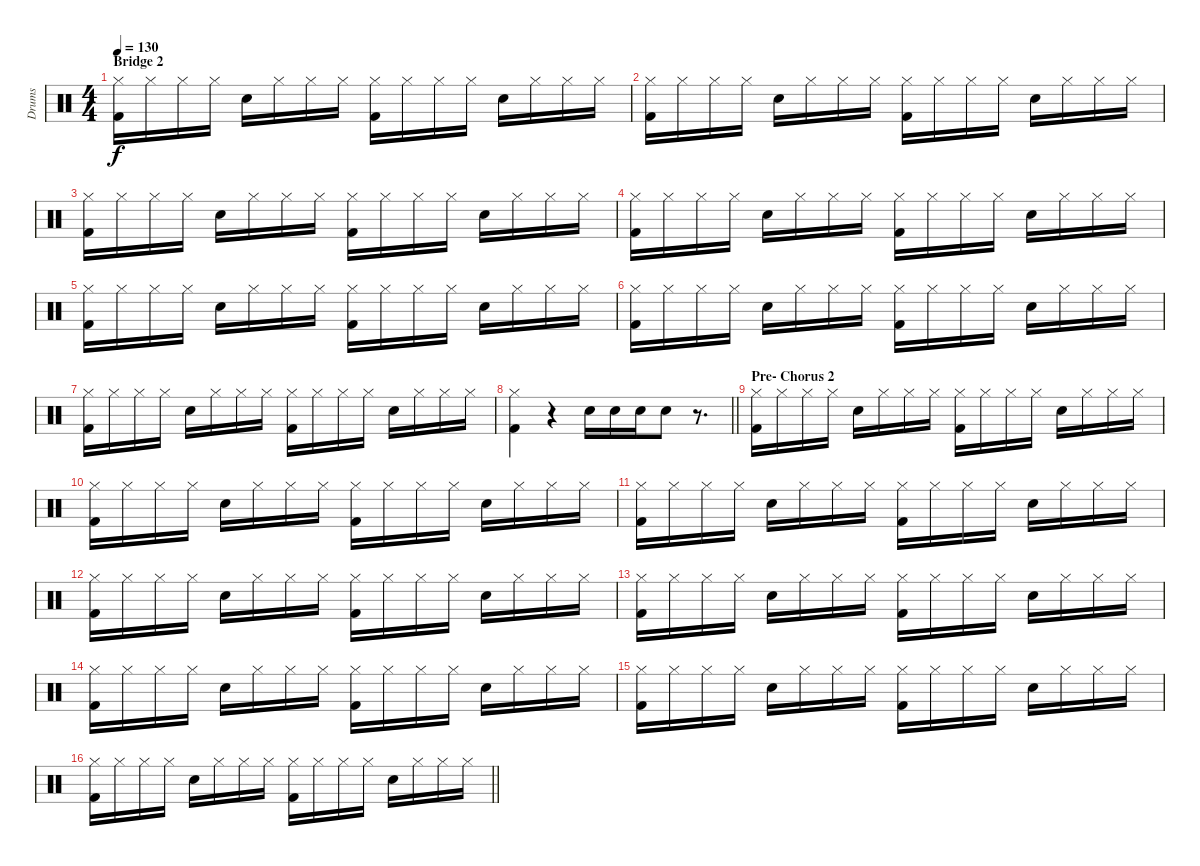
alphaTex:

\track ("Drums" "Drums") {instrument percussion}
\staff {score}
\articulation defaults
\ts (4 4)
\section ("" "Bridge 2")
\tempo 130
\clef neutral
\ks c
("Hi-Hat (closed)" "Kick (hit) 2").16{dy f} "Hi-Hat (closed)".16 "Hi-Hat (closed)".16 "Hi-Hat (closed)".16 "Snare (hit) 2".16 "Hi-Hat (closed)".16 "Hi-Hat (closed)".16 "Hi-Hat (closed)".16 ("Hi-Hat (closed)" "Kick (hit) 2").16 "Hi-Hat (closed)".16 "Hi-Hat (closed)".16 "Hi-Hat (closed)".16 "Snare (hit) 2".16 "Hi-Hat (closed)".16 "Hi-Hat (closed)".16 "Hi-Hat (closed)".16 |
("Hi-Hat (closed)" "Kick (hit) 2").16 "Hi-Hat (closed)".16 "Hi-Hat (closed)".16 "Hi-Hat (closed)".16 "Snare (hit) 2".16 "Hi-Hat (closed)".16 "Hi-Hat (closed)".16 "Hi-Hat (closed)".16 ("Hi-Hat (closed)" "Kick (hit) 2").16 "Hi-Hat (closed)".16 "Hi-Hat (closed)".16 "Hi-Hat (closed)".16 "Snare (hit) 2".16 "Hi-Hat (closed)".16 "Hi-Hat (closed)".16 "Hi-Hat (closed)".16 |
("Hi-Hat (closed)" "Kick (hit) 2").16 "Hi-Hat (closed)".16 "Hi-Hat (closed)".16 "Hi-Hat (closed)".16 "Snare (hit) 2".16 "Hi-Hat (closed)".16 "Hi-Hat (closed)".16 "Hi-Hat (closed)".16 ("Hi-Hat (closed)" "Kick (hit) 2").16 "Hi-Hat (closed)".16 "Hi-Hat (closed)".16 "Hi-Hat (closed)".16 "Snare (hit) 2".16 "Hi-Hat (closed)".16 "Hi-Hat (closed)".16 "Hi-Hat (closed)".16 |
("Hi-Hat (closed)" "Kick (hit) 2").16 "Hi-Hat (closed)".16 "Hi-Hat (closed)".16 "Hi-Hat (closed)".16 "Snare (hit) 2".16 "Hi-Hat (closed)".16 "Hi-Hat (closed)".16 "Hi-Hat (closed)".16 ("Hi-Hat (closed)" "Kick (hit) 2").16 "Hi-Hat (closed)".16 "Hi-Hat (closed)".16 "Hi-Hat (closed)".16 "Snare (hit) 2".16 "Hi-Hat (closed)".16 "Hi-Hat (closed)".16 "Hi-Hat (closed)".16 |
("Hi-Hat (closed)" "Kick (hit) 2").16 "Hi-Hat (closed)".16 "Hi-Hat (closed)".16 "Hi-Hat (closed)".16 "Snare (hit) 2".16 "Hi-Hat (closed)".16 "Hi-Hat (closed)".16 "Hi-Hat (closed)".16 ("Hi-Hat (closed)" "Kick (hit) 2").16 "Hi-Hat (closed)".16 "Hi-Hat (closed)".16 "Hi-Hat (closed)".16 "Snare (hit) 2".16 "Hi-Hat (closed)".16 "Hi-Hat (closed)".16 "Hi-Hat (closed)".16 |
("Hi-Hat (closed)" "Kick (hit) 2").16 "Hi-Hat (closed)".16 "Hi-Hat (closed)".16 "Hi-Hat (closed)".16 "Snare (hit) 2".16 "Hi-Hat (closed)".16 "Hi-Hat (closed)".16 "Hi-Hat (closed)".16 ("Hi-Hat (closed)" "Kick (hit) 2").16 "Hi-Hat (closed)".16 "Hi-Hat (closed)".16 "Hi-Hat (closed)".16 "Snare (hit) 2".16 "Hi-Hat (closed)".16 "Hi-Hat (closed)".16 "Hi-Hat (closed)".16 |
("Hi-Hat (closed)" "Kick (hit) 2").16 "Hi-Hat (closed)".16 "Hi-Hat (closed)".16 "Hi-Hat (closed)".16 "Snare (hit) 2".16 "Hi-Hat (closed)".16 "Hi-Hat (closed)".16 "Hi-Hat (closed)".16 ("Hi-Hat (closed)" "Kick (hit) 2").16 "Hi-Hat (closed)".16 "Hi-Hat (closed)".16 "Hi-Hat (closed)".16 "Snare (hit) 2".16 "Hi-Hat (closed)".16 "Hi-Hat (closed)".16 "Hi-Hat (closed)".16 |
\barLineRight lightlight
("Hi-Hat (closed)" "Kick (hit) 2").4 r.4 "Snare (hit) 2".16 "Snare (hit) 2".16 "Snare (hit) 2".16 "Snare (hit) 2".8 r.8{d} |
\section ("" "Pre- Chorus 2")
("Hi-Hat (closed)" "Kick (hit) 2").16 "Hi-Hat (closed)".16 "Hi-Hat (closed)".16 "Hi-Hat (closed)".16 "Snare (hit) 2".16 "Hi-Hat (closed)".16 "Hi-Hat (closed)".16 "Hi-Hat (closed)".16 ("Hi-Hat (closed)" "Kick (hit) 2").16 "Hi-Hat (closed)".16 "Hi-Hat (closed)".16 "Hi-Hat (closed)".16 "Snare (hit) 2".16 "Hi-Hat (closed)".16 "Hi-Hat (closed)".16 "Hi-Hat (closed)".16 |
("Hi-Hat (closed)" "Kick (hit) 2").16 "Hi-Hat (closed)".16 "Hi-Hat (closed)".16 "Hi-Hat (closed)".16 "Snare (hit) 2".16 "Hi-Hat (closed)".16 "Hi-Hat (closed)".16 "Hi-Hat (closed)".16 ("Hi-Hat (closed)" "Kick (hit) 2").16 "Hi-Hat (closed)".16 "Hi-Hat (closed)".16 "Hi-Hat (closed)".16 "Snare (hit) 2".16 "Hi-Hat (closed)".16 "Hi-Hat (closed)".16 "Hi-Hat (closed)".16 |
("Hi-Hat (closed)" "Kick (hit) 2").16 "Hi-Hat (closed)".16 "Hi-Hat (closed)".16 "Hi-Hat (closed)".16 "Snare (hit) 2".16 "Hi-Hat (closed)".16 "Hi-Hat (closed)".16 "Hi-Hat (closed)".16 ("Hi-Hat (closed)" "Kick (hit) 2").16 "Hi-Hat (closed)".16 "Hi-Hat (closed)".16 "Hi-Hat (closed)".16 "Snare (hit) 2".16 "Hi-Hat (closed)".16 "Hi-Hat (closed)".16 "Hi-Hat (closed)".16 |
("Hi-Hat (closed)" "Kick (hit) 2").16 "Hi-Hat (closed)".16 "Hi-Hat (closed)".16 "Hi-Hat (closed)".16 "Snare (hit) 2".16 "Hi-Hat (closed)".16 "Hi-Hat (closed)".16 "Hi-Hat (closed)".16 ("Hi-Hat (closed)" "Kick (hit) 2").16 "Hi-Hat (closed)".16 "Hi-Hat (closed)".16 "Hi-Hat (closed)".16 "Snare (hit) 2".16 "Hi-Hat (closed)".16 "Hi-Hat (closed)".16 "Hi-Hat (closed)".16 |
("Hi-Hat (closed)" "Kick (hit) 2").16 "Hi-Hat (closed)".16 "Hi-Hat (closed)".16 "Hi-Hat (closed)".16 "Snare (hit) 2".16 "Hi-Hat (closed)".16 "Hi-Hat (closed)".16 "Hi-Hat (closed)".16 ("Hi-Hat (closed)" "Kick (hit) 2").16 "Hi-Hat (closed)".16 "Hi-Hat (closed)".16 "Hi-Hat (closed)".16 "Snare (hit) 2".16 "Hi-Hat (closed)".16 "Hi-Hat (closed)".16 "Hi-Hat (closed)".16 |
("Hi-Hat (closed)" "Kick (hit) 2").16 "Hi-Hat (closed)".16 "Hi-Hat (closed)".16 "Hi-Hat (closed)".16 "Snare (hit) 2".16 "Hi-Hat (closed)".16 "Hi-Hat (closed)".16 "Hi-Hat (closed)".16 ("Hi-Hat (closed)" "Kick (hit) 2").16 "Hi-Hat (closed)".16 "Hi-Hat (closed)".16 "Hi-Hat (closed)".16 "Snare (hit) 2".16 "Hi-Hat (closed)".16 "Hi-Hat (closed)".16 "Hi-Hat (closed)".16 |
("Hi-Hat (closed)" "Kick (hit) 2").16 "Hi-Hat (closed)".16 "Hi-Hat (closed)".16 "Hi-Hat (closed)".16 "Snare (hit) 2".16 "Hi-Hat (closed)".16 "Hi-Hat (closed)".16 "Hi-Hat (closed)".16 ("Hi-Hat (closed)" "Kick (hit) 2").16 "Hi-Hat (closed)".16 "Hi-Hat (closed)".16 "Hi-Hat (closed)".16 "Snare (hit) 2".16 "Hi-Hat (closed)".16 "Hi-Hat (closed)".16 "Hi-Hat (closed)".16 |
\barLineRight lightlight
("Hi-Hat (closed)" "Kick (hit) 2").16 "Hi-Hat (closed)".16 "Hi-Hat (closed)".16 "Hi-Hat (closed)".16 "Snare (hit) 2".16 "Hi-Hat (closed)".16 "Hi-Hat (closed)".16 "Hi-Hat (closed)".16 ("Hi-Hat (closed)" "Kick (hit) 2").16 "Hi-Hat (closed)".16 "Hi-Hat (closed)".16 "Hi-Hat (closed)".16 "Snare (hit) 2".16 "Hi-Hat (closed)".16 "Hi-Hat (closed)".16 "Hi-Hat (closed)".16
